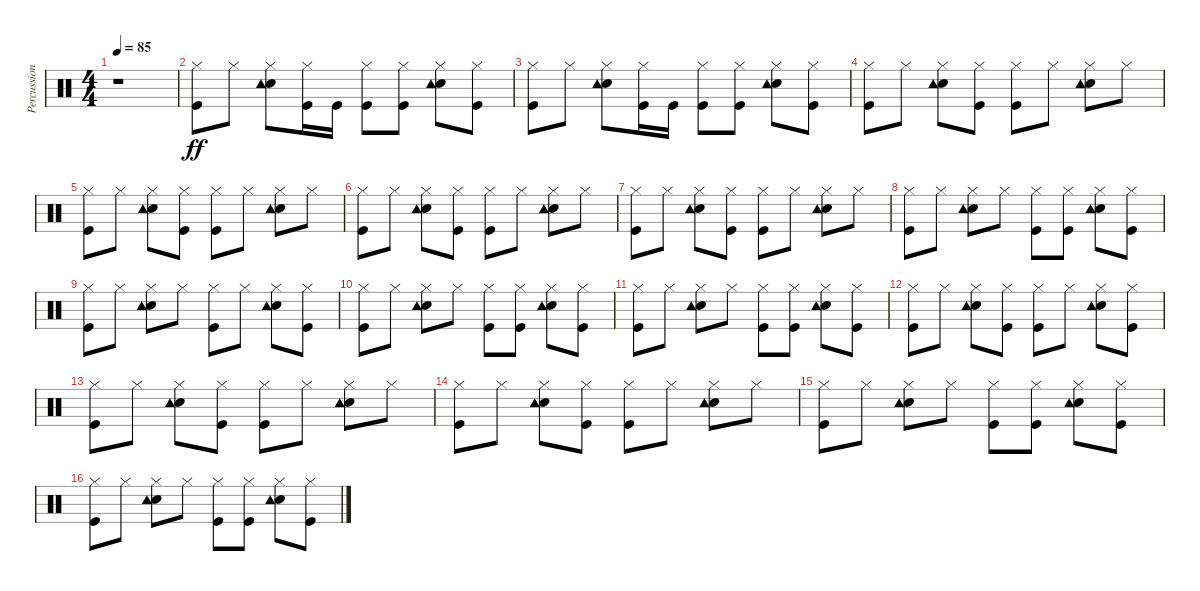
\track ("Percussion" "Percussion") {instrument percussion}
\staff {score}
\articulation defaults
\ts (4 4)
\tempo 85
\clef neutral
\ks c
r.1{dy ff} |
("Kick (hit)" "Hi-Hat (closed)").8 "Hi-Hat (closed)".8 ("Snare (hit) 2" "Hi-Hat (closed)" "Tambourine (hit)").8 ("Kick (hit)" "Hi-Hat (closed)").16 "Kick (hit)".16 ("Kick (hit)" "Hi-Hat (closed)").8 ("Kick (hit)" "Hi-Hat (closed)").8 ("Snare (hit) 2" "Hi-Hat (closed)" "Tambourine (hit)").8 ("Kick (hit)" "Hi-Hat (closed)").8 |
("Kick (hit)" "Hi-Hat (closed)").8 "Hi-Hat (closed)".8 ("Snare (hit) 2" "Hi-Hat (closed)" "Tambourine (hit)").8 ("Kick (hit)" "Hi-Hat (closed)").16 "Kick (hit)".16 ("Kick (hit)" "Hi-Hat (closed)").8 ("Kick (hit)" "Hi-Hat (closed)").8 ("Snare (hit) 2" "Hi-Hat (closed)" "Tambourine (hit)").8 ("Kick (hit)" "Hi-Hat (closed)").8 |
("Kick (hit)" "Hi-Hat (closed)").8 "Hi-Hat (closed)".8 ("Snare (hit) 2" "Hi-Hat (closed)" "Tambourine (hit)").8 ("Kick (hit)" "Hi-Hat (closed)").8 ("Kick (hit)" "Hi-Hat (closed)").8 "Hi-Hat (closed)".8 ("Snare (hit) 2" "Hi-Hat (closed)" "Tambourine (hit)").8 "Hi-Hat (closed)".8 |
("Kick (hit)" "Hi-Hat (closed)").8 "Hi-Hat (closed)".8 ("Snare (hit) 2" "Hi-Hat (closed)" "Tambourine (hit)").8 ("Kick (hit)" "Hi-Hat (closed)").8 ("Kick (hit)" "Hi-Hat (closed)").8 "Hi-Hat (closed)".8 ("Snare (hit) 2" "Hi-Hat (closed)" "Tambourine (hit)").8 "Hi-Hat (closed)".8 |
("Kick (hit)" "Hi-Hat (closed)").8 "Hi-Hat (closed)".8 ("Snare (hit) 2" "Hi-Hat (closed)" "Tambourine (hit)").8 ("Kick (hit)" "Hi-Hat (closed)").8 ("Kick (hit)" "Hi-Hat (closed)").8 "Hi-Hat (closed)".8 ("Snare (hit) 2" "Hi-Hat (closed)" "Tambourine (hit)").8 "Hi-Hat (closed)".8 |
("Kick (hit)" "Hi-Hat (closed)").8 "Hi-Hat (closed)".8 ("Snare (hit) 2" "Hi-Hat (closed)" "Tambourine (hit)").8 ("Kick (hit)" "Hi-Hat (closed)").8 ("Kick (hit)" "Hi-Hat (closed)").8 "Hi-Hat (closed)".8 ("Snare (hit) 2" "Hi-Hat (closed)" "Tambourine (hit)").8 "Hi-Hat (closed)".8 |
("Kick (hit)" "Hi-Hat (closed)").8 "Hi-Hat (closed)".8 ("Snare (hit) 2" "Hi-Hat (closed)" "Tambourine (hit)").8 "Hi-Hat (closed)".8 ("Kick (hit)" "Hi-Hat (closed)").8 ("Kick (hit)" "Hi-Hat (closed)").8 ("Snare (hit) 2" "Hi-Hat (closed)" "Tambourine (hit)").8 ("Kick (hit)" "Hi-Hat (closed)").8 |
("Kick (hit)" "Hi-Hat (closed)").8 "Hi-Hat (closed)".8 ("Snare (hit) 2" "Hi-Hat (closed)" "Tambourine (hit)").8 "Hi-Hat (closed)".8 ("Kick (hit)" "Hi-Hat (closed)").8 "Hi-Hat (closed)".8 ("Snare (hit) 2" "Hi-Hat (closed)" "Tambourine (hit)").8 ("Kick (hit)" "Hi-Hat (closed)").8 |
("Kick (hit)" "Hi-Hat (closed)").8 "Hi-Hat (closed)".8 ("Snare (hit) 2" "Hi-Hat (closed)" "Tambourine (hit)").8 "Hi-Hat (closed)".8 ("Kick (hit)" "Hi-Hat (closed)").8 ("Kick (hit)" "Hi-Hat (closed)").8 ("Snare (hit) 2" "Hi-Hat (closed)" "Tambourine (hit)").8 ("Kick (hit)" "Hi-Hat (closed)").8 |
("Kick (hit)" "Hi-Hat (closed)").8 "Hi-Hat (closed)".8 ("Snare (hit) 2" "Hi-Hat (closed)" "Tambourine (hit)").8 "Hi-Hat (closed)".8 ("Kick (hit)" "Hi-Hat (closed)").8 ("Kick (hit)" "Hi-Hat (closed)").8 ("Snare (hit) 2" "Hi-Hat (closed)" "Tambourine (hit)").8 ("Kick (hit)" "Hi-Hat (closed)").8 |
("Kick (hit)" "Hi-Hat (closed)").8 "Hi-Hat (closed)".8 ("Snare (hit) 2" "Hi-Hat (closed)" "Tambourine (hit)").8 ("Kick (hit)" "Hi-Hat (closed)").8 ("Kick (hit)" "Hi-Hat (closed)").8 "Hi-Hat (closed)".8 ("Snare (hit) 2" "Hi-Hat (closed)" "Tambourine (hit)").8 ("Kick (hit)" "Hi-Hat (closed)").8 |
("Kick (hit)" "Hi-Hat (closed)").8 "Hi-Hat (closed)".8 ("Snare (hit) 2" "Hi-Hat (closed)" "Tambourine (hit)").8 ("Kick (hit)" "Hi-Hat (closed)").8 ("Kick (hit)" "Hi-Hat (closed)").8 "Hi-Hat (closed)".8 ("Snare (hit) 2" "Hi-Hat (closed)" "Tambourine (hit)").8 "Hi-Hat (closed)".8 |
("Kick (hit)" "Hi-Hat (closed)").8 "Hi-Hat (closed)".8 ("Snare (hit) 2" "Hi-Hat (closed)" "Tambourine (hit)").8 ("Kick (hit)" "Hi-Hat (closed)").8 ("Kick (hit)" "Hi-Hat (closed)").8 "Hi-Hat (closed)".8 ("Snare (hit) 2" "Hi-Hat (closed)" "Tambourine (hit)").8 "Hi-Hat (closed)".8 |
("Kick (hit)" "Hi-Hat (closed)").8 "Hi-Hat (closed)".8 ("Snare (hit) 2" "Hi-Hat (closed)" "Tambourine (hit)").8 "Hi-Hat (closed)".8 ("Kick (hit)" "Hi-Hat (closed)").8 ("Kick (hit)" "Hi-Hat (closed)").8 ("Snare (hit) 2" "Hi-Hat (closed)" "Tambourine (hit)").8 ("Kick (hit)" "Hi-Hat (closed)").8 |
("Kick (hit)" "Hi-Hat (closed)").8 "Hi-Hat (closed)".8 ("Snare (hit) 2" "Hi-Hat (closed)" "Tambourine (hit)").8 "Hi-Hat (closed)".8 ("Kick (hit)" "Hi-Hat (closed)").8 ("Kick (hit)" "Hi-Hat (closed)").8 ("Snare (hit) 2" "Hi-Hat (closed)" "Tambourine (hit)").8 ("Kick (hit)" "Hi-Hat (closed)").8
